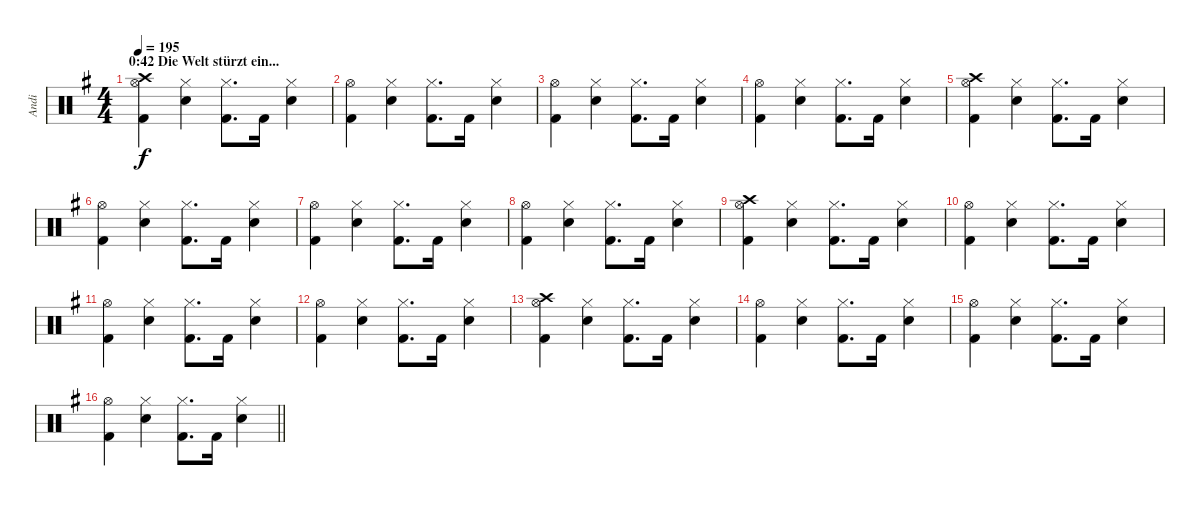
\track ("Andi" "Andi") {instrument percussion}
\staff {score}
\articulation defaults
\ts (4 4)
\section ("" "0:42 Die Welt stürzt ein...")
\tempo 195
\clef neutral
\ks g
("Crash high (hit)" "Hi-Hat (open)" "Kick (hit) 2").4{dy f} ("Hi-Hat (closed)" "Snare (hit) 2").4 ("Hi-Hat (closed)" "Kick (hit) 2").8{d} "Kick (hit) 2".16 ("Hi-Hat (closed)" "Snare (hit) 2").4 |
("Hi-Hat (open)" "Kick (hit) 2").4 ("Hi-Hat (closed)" "Snare (hit) 2").4 ("Hi-Hat (closed)" "Kick (hit) 2").8{d} "Kick (hit) 2".16 ("Hi-Hat (closed)" "Snare (hit) 2").4 |
("Hi-Hat (open)" "Kick (hit) 2").4 ("Hi-Hat (closed)" "Snare (hit) 2").4 ("Hi-Hat (closed)" "Kick (hit) 2").8{d} "Kick (hit) 2".16 ("Hi-Hat (closed)" "Snare (hit) 2").4 |
("Hi-Hat (open)" "Kick (hit) 2").4 ("Hi-Hat (closed)" "Snare (hit) 2").4 ("Hi-Hat (closed)" "Kick (hit) 2").8{d} "Kick (hit) 2".16 ("Hi-Hat (closed)" "Snare (hit) 2").4 |
("Crash high (hit)" "Hi-Hat (open)" "Kick (hit) 2").4 ("Hi-Hat (closed)" "Snare (hit) 2").4 ("Hi-Hat (closed)" "Kick (hit) 2").8{d} "Kick (hit) 2".16 ("Hi-Hat (closed)" "Snare (hit) 2").4 |
("Hi-Hat (open)" "Kick (hit) 2").4 ("Hi-Hat (closed)" "Snare (hit) 2").4 ("Hi-Hat (closed)" "Kick (hit) 2").8{d} "Kick (hit) 2".16 ("Hi-Hat (closed)" "Snare (hit) 2").4 |
("Hi-Hat (open)" "Kick (hit) 2").4 ("Hi-Hat (closed)" "Snare (hit) 2").4 ("Hi-Hat (closed)" "Kick (hit) 2").8{d} "Kick (hit) 2".16 ("Hi-Hat (closed)" "Snare (hit) 2").4 |
("Hi-Hat (open)" "Kick (hit) 2").4 ("Hi-Hat (closed)" "Snare (hit) 2").4 ("Hi-Hat (closed)" "Kick (hit) 2").8{d} "Kick (hit) 2".16 ("Hi-Hat (closed)" "Snare (hit) 2").4 |
("Crash high (hit)" "Hi-Hat (open)" "Kick (hit) 2").4 ("Hi-Hat (closed)" "Snare (hit) 2").4 ("Hi-Hat (closed)" "Kick (hit) 2").8{d} "Kick (hit) 2".16 ("Hi-Hat (closed)" "Snare (hit) 2").4 |
("Hi-Hat (open)" "Kick (hit) 2").4 ("Hi-Hat (closed)" "Snare (hit) 2").4 ("Hi-Hat (closed)" "Kick (hit) 2").8{d} "Kick (hit) 2".16 ("Hi-Hat (closed)" "Snare (hit) 2").4 |
("Hi-Hat (open)" "Kick (hit) 2").4 ("Hi-Hat (closed)" "Snare (hit) 2").4 ("Hi-Hat (closed)" "Kick (hit) 2").8{d} "Kick (hit) 2".16 ("Hi-Hat (closed)" "Snare (hit) 2").4 |
("Hi-Hat (open)" "Kick (hit) 2").4 ("Hi-Hat (closed)" "Snare (hit) 2").4 ("Hi-Hat (closed)" "Kick (hit) 2").8{d} "Kick (hit) 2".16 ("Hi-Hat (closed)" "Snare (hit) 2").4 |
("Crash high (hit)" "Hi-Hat (open)" "Kick (hit) 2").4 ("Hi-Hat (closed)" "Snare (hit) 2").4 ("Hi-Hat (closed)" "Kick (hit) 2").8{d} "Kick (hit) 2".16 ("Hi-Hat (closed)" "Snare (hit) 2").4 |
("Hi-Hat (open)" "Kick (hit) 2").4 ("Hi-Hat (closed)" "Snare (hit) 2").4 ("Hi-Hat (closed)" "Kick (hit) 2").8{d} "Kick (hit) 2".16 ("Hi-Hat (closed)" "Snare (hit) 2").4 |
("Hi-Hat (open)" "Kick (hit) 2").4 ("Hi-Hat (closed)" "Snare (hit) 2").4 ("Hi-Hat (closed)" "Kick (hit) 2").8{d} "Kick (hit) 2".16 ("Hi-Hat (closed)" "Snare (hit) 2").4 |
\barLineRight lightlight
("Hi-Hat (open)" "Kick (hit) 2").4 ("Hi-Hat (closed)" "Snare (hit) 2").4 ("Hi-Hat (closed)" "Kick (hit) 2").8{d} "Kick (hit) 2".16 ("Hi-Hat (closed)" "Snare (hit) 2").4
